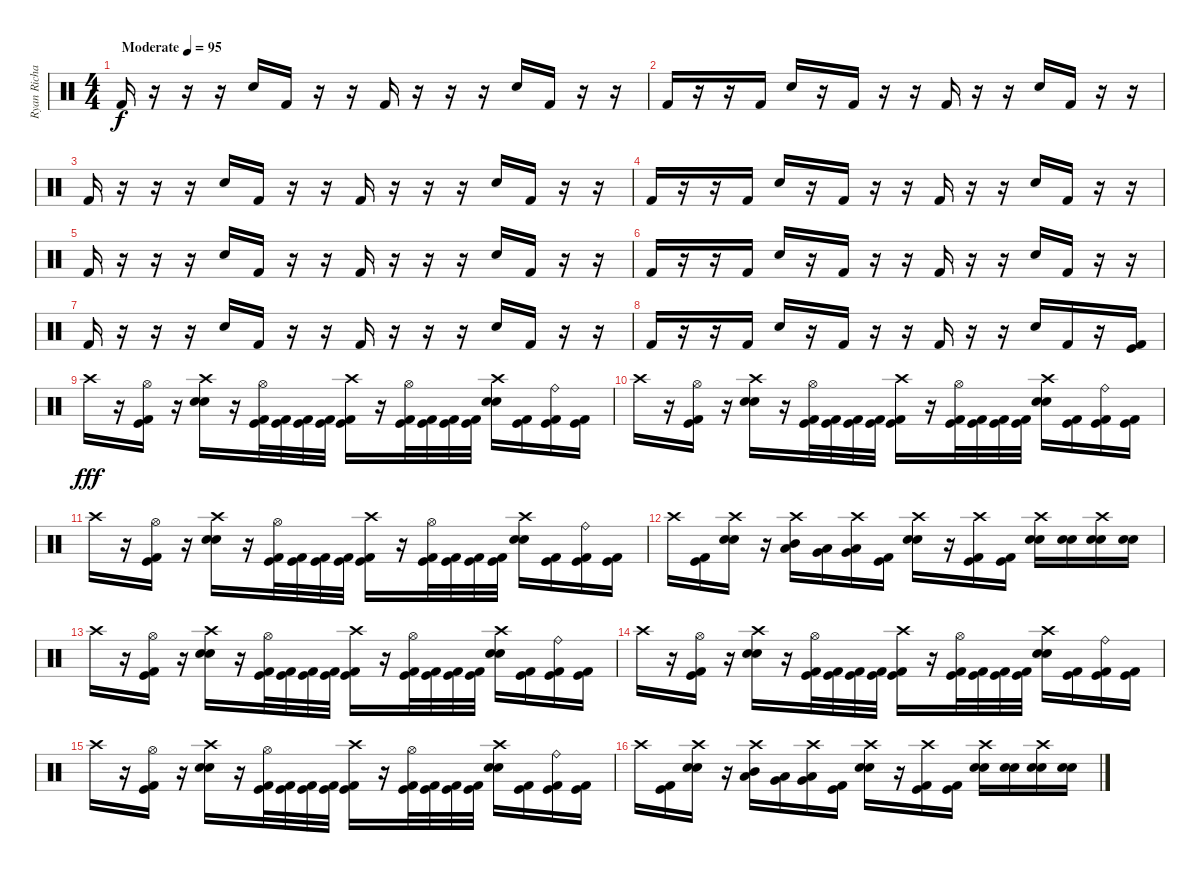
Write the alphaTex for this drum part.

\track ("Ryan Richards" "Ryan Richa") {instrument percussion}
\staff {score}
\articulation defaults
\ts (4 4)
\tempo (95 "Moderate")
\clef neutral
\ks c "Kick (hit) 2".16{dy f}
r.16 r.16 r.16 "Electric Snare (hit)".16 "Kick (hit) 2".16 r.16 r.16 "Kick (hit) 2".16 r.16 r.16 r.16 "Electric Snare (hit)".16 "Kick (hit) 2".16 r.16 r.16 |
"Kick (hit) 2".16 r.16 r.16 "Kick (hit) 2".16 "Electric Snare (hit)".16 r.16 "Kick (hit) 2".16 r.16 r.16 "Kick (hit) 2".16 r.16 r.16 "Electric Snare (hit)".16 "Kick (hit) 2".16 r.16 r.16 |
"Kick (hit) 2".16 r.16 r.16 r.16 "Electric Snare (hit)".16 "Kick (hit) 2".16 r.16 r.16 "Kick (hit) 2".16 r.16 r.16 r.16 "Electric Snare (hit)".16 "Kick (hit) 2".16 r.16 r.16 |
"Kick (hit) 2".16 r.16 r.16 "Kick (hit) 2".16 "Electric Snare (hit)".16 r.16 "Kick (hit) 2".16 r.16 r.16 "Kick (hit) 2".16 r.16 r.16 "Electric Snare (hit)".16 "Kick (hit) 2".16 r.16 r.16 |
"Kick (hit) 2".16 r.16 r.16 r.16 "Electric Snare (hit)".16 "Kick (hit) 2".16 r.16 r.16 "Kick (hit) 2".16 r.16 r.16 r.16 "Electric Snare (hit)".16 "Kick (hit) 2".16 r.16 r.16 |
"Kick (hit) 2".16 r.16 r.16 "Kick (hit) 2".16 "Electric Snare (hit)".16 r.16 "Kick (hit) 2".16 r.16 r.16 "Kick (hit) 2".16 r.16 r.16 "Electric Snare (hit)".16 "Kick (hit) 2".16 r.16 r.16 |
"Kick (hit) 2".16 r.16 r.16 r.16 "Electric Snare (hit)".16 "Kick (hit) 2".16 r.16 r.16 "Kick (hit) 2".16 r.16 r.16 r.16 "Electric Snare (hit)".16 "Kick (hit) 2".16 r.16 r.16 |
"Kick (hit) 2".16 r.16 r.16 "Kick (hit) 2".16 "Electric Snare (hit)".16 r.16 "Kick (hit) 2".16 r.16 r.16 "Kick (hit) 2".16 r.16 r.16 "Electric Snare (hit)".16 "Kick (hit) 2".16 r.16 ("Kick (hit)" "Kick (hit) 2").16 |
"Crash high (hit)".16{dy fff} r.16 ("Kick (hit)" "Hi-Hat (open)" "Kick (hit) 2").16 r.16 ("Snare (hit) 2" "Crash high (hit)" "Electric Snare (hit)").16 r.16 ("Kick (hit)" "Hi-Hat (open)" "Kick (hit) 2").32 ("Kick (hit)" "Kick (hit) 2").32 ("Kick (hit)" "Kick (hit) 2").32 ("Kick (hit)" "Kick (hit) 2").32 ("Kick (hit)" "Crash high (hit)" "Kick (hit) 2").16 r.16 ("Kick (hit)" "Hi-Hat (open)" "Kick (hit) 2").32 ("Kick (hit)" "Kick (hit) 2").32 ("Kick (hit)" "Kick (hit) 2").32 ("Kick (hit)" "Kick (hit) 2").32 ("Snare (hit) 2" "Crash high (hit)" "Electric Snare (hit)").16 ("Kick (hit)" "Kick (hit) 2").16 ("Kick (hit)" "Ride (bell)" "Kick (hit) 2").16 ("Kick (hit)" "Kick (hit) 2").16 |
"Crash high (hit)".16 r.16 ("Kick (hit)" "Hi-Hat (open)" "Kick (hit) 2").16 r.16 ("Snare (hit) 2" "Crash high (hit)" "Electric Snare (hit)").16 r.16 ("Kick (hit)" "Hi-Hat (open)" "Kick (hit) 2").32 ("Kick (hit)" "Kick (hit) 2").32 ("Kick (hit)" "Kick (hit) 2").32 ("Kick (hit)" "Kick (hit) 2").32 ("Kick (hit)" "Crash high (hit)" "Kick (hit) 2").16 r.16 ("Kick (hit)" "Hi-Hat (open)" "Kick (hit) 2").32 ("Kick (hit)" "Kick (hit) 2").32 ("Kick (hit)" "Kick (hit) 2").32 ("Kick (hit)" "Kick (hit) 2").32 ("Snare (hit) 2" "Crash high (hit)" "Electric Snare (hit)").16 ("Kick (hit)" "Kick (hit) 2").16 ("Kick (hit)" "Ride (bell)" "Kick (hit) 2").16 ("Kick (hit)" "Kick (hit) 2").16 |
"Crash high (hit)".16 r.16 ("Kick (hit)" "Hi-Hat (open)" "Kick (hit) 2").16 r.16 ("Snare (hit) 2" "Crash high (hit)" "Electric Snare (hit)").16 r.16 ("Kick (hit)" "Hi-Hat (open)" "Kick (hit) 2").32 ("Kick (hit)" "Kick (hit) 2").32 ("Kick (hit)" "Kick (hit) 2").32 ("Kick (hit)" "Kick (hit) 2").32 ("Kick (hit)" "Crash high (hit)" "Kick (hit) 2").16 r.16 ("Kick (hit)" "Hi-Hat (open)" "Kick (hit) 2").32 ("Kick (hit)" "Kick (hit) 2").32 ("Kick (hit)" "Kick (hit) 2").32 ("Kick (hit)" "Kick (hit) 2").32 ("Snare (hit) 2" "Crash high (hit)" "Electric Snare (hit)").16 ("Kick (hit)" "Kick (hit) 2").16 ("Kick (hit)" "Ride (bell)" "Kick (hit) 2").16 ("Kick (hit)" "Kick (hit) 2").16 |
"Crash high (hit)".16 ("Kick (hit)" "Kick (hit) 2").16 ("Snare (hit) 2" "Crash high (hit)" "Electric Snare (hit)").16 r.16 ("Mid Tom (hit)" "Crash high (hit)" "Low Tom (hit)").16 ("Low Tom (hit)" "Very Low Tom (hit)").16 ("Very Low Tom (hit)" "Crash high (hit)" "Low Floor Tom (hit)").16 ("Kick (hit)" "Kick (hit) 2").16 ("Snare (hit) 2" "Crash high (hit)" "Electric Snare (hit)").16 r.16 ("Kick (hit)" "Crash high (hit)" "Kick (hit) 2").16 ("Kick (hit)" "Kick (hit) 2").16 ("Snare (hit) 2" "Crash high (hit)" "Electric Snare (hit)").16 ("Snare (hit) 2" "Electric Snare (hit)").16 ("Snare (hit) 2" "Crash high (hit)" "Electric Snare (hit)").16 ("Snare (hit) 2" "Electric Snare (hit)").16 |
"Crash high (hit)".16 r.16 ("Kick (hit)" "Hi-Hat (open)" "Kick (hit) 2").16 r.16 ("Snare (hit) 2" "Crash high (hit)" "Electric Snare (hit)").16 r.16 ("Kick (hit)" "Hi-Hat (open)" "Kick (hit) 2").32 ("Kick (hit)" "Kick (hit) 2").32 ("Kick (hit)" "Kick (hit) 2").32 ("Kick (hit)" "Kick (hit) 2").32 ("Kick (hit)" "Crash high (hit)" "Kick (hit) 2").16 r.16 ("Kick (hit)" "Hi-Hat (open)" "Kick (hit) 2").32 ("Kick (hit)" "Kick (hit) 2").32 ("Kick (hit)" "Kick (hit) 2").32 ("Kick (hit)" "Kick (hit) 2").32 ("Snare (hit) 2" "Crash high (hit)" "Electric Snare (hit)").16 ("Kick (hit)" "Kick (hit) 2").16 ("Kick (hit)" "Ride (bell)" "Kick (hit) 2").16 ("Kick (hit)" "Kick (hit) 2").16 |
"Crash high (hit)".16 r.16 ("Kick (hit)" "Hi-Hat (open)" "Kick (hit) 2").16 r.16 ("Snare (hit) 2" "Crash high (hit)" "Electric Snare (hit)").16 r.16 ("Kick (hit)" "Hi-Hat (open)" "Kick (hit) 2").32 ("Kick (hit)" "Kick (hit) 2").32 ("Kick (hit)" "Kick (hit) 2").32 ("Kick (hit)" "Kick (hit) 2").32 ("Kick (hit)" "Crash high (hit)" "Kick (hit) 2").16 r.16 ("Kick (hit)" "Hi-Hat (open)" "Kick (hit) 2").32 ("Kick (hit)" "Kick (hit) 2").32 ("Kick (hit)" "Kick (hit) 2").32 ("Kick (hit)" "Kick (hit) 2").32 ("Snare (hit) 2" "Crash high (hit)" "Electric Snare (hit)").16 ("Kick (hit)" "Kick (hit) 2").16 ("Kick (hit)" "Ride (bell)" "Kick (hit) 2").16 ("Kick (hit)" "Kick (hit) 2").16 |
"Crash high (hit)".16 r.16 ("Kick (hit)" "Hi-Hat (open)" "Kick (hit) 2").16 r.16 ("Snare (hit) 2" "Crash high (hit)" "Electric Snare (hit)").16 r.16 ("Kick (hit)" "Hi-Hat (open)" "Kick (hit) 2").32 ("Kick (hit)" "Kick (hit) 2").32 ("Kick (hit)" "Kick (hit) 2").32 ("Kick (hit)" "Kick (hit) 2").32 ("Kick (hit)" "Crash high (hit)" "Kick (hit) 2").16 r.16 ("Kick (hit)" "Hi-Hat (open)" "Kick (hit) 2").32 ("Kick (hit)" "Kick (hit) 2").32 ("Kick (hit)" "Kick (hit) 2").32 ("Kick (hit)" "Kick (hit) 2").32 ("Snare (hit) 2" "Crash high (hit)" "Electric Snare (hit)").16 ("Kick (hit)" "Kick (hit) 2").16 ("Kick (hit)" "Ride (bell)" "Kick (hit) 2").16 ("Kick (hit)" "Kick (hit) 2").16 |
"Crash high (hit)".16 ("Kick (hit)" "Kick (hit) 2").16 ("Snare (hit) 2" "Crash high (hit)" "Electric Snare (hit)").16 r.16 ("Mid Tom (hit)" "Crash high (hit)" "Low Tom (hit)").16 ("Low Tom (hit)" "Very Low Tom (hit)").16 ("Very Low Tom (hit)" "Crash high (hit)" "Low Floor Tom (hit)").16 ("Kick (hit)" "Kick (hit) 2").16 ("Snare (hit) 2" "Crash high (hit)" "Electric Snare (hit)").16 r.16 ("Kick (hit)" "Crash high (hit)" "Kick (hit) 2").16 ("Kick (hit)" "Kick (hit) 2").16 ("Snare (hit) 2" "Crash high (hit)" "Electric Snare (hit)").16 ("Snare (hit) 2" "Electric Snare (hit)").16 ("Snare (hit) 2" "Crash high (hit)" "Electric Snare (hit)").16 ("Snare (hit) 2" "Electric Snare (hit)").16
